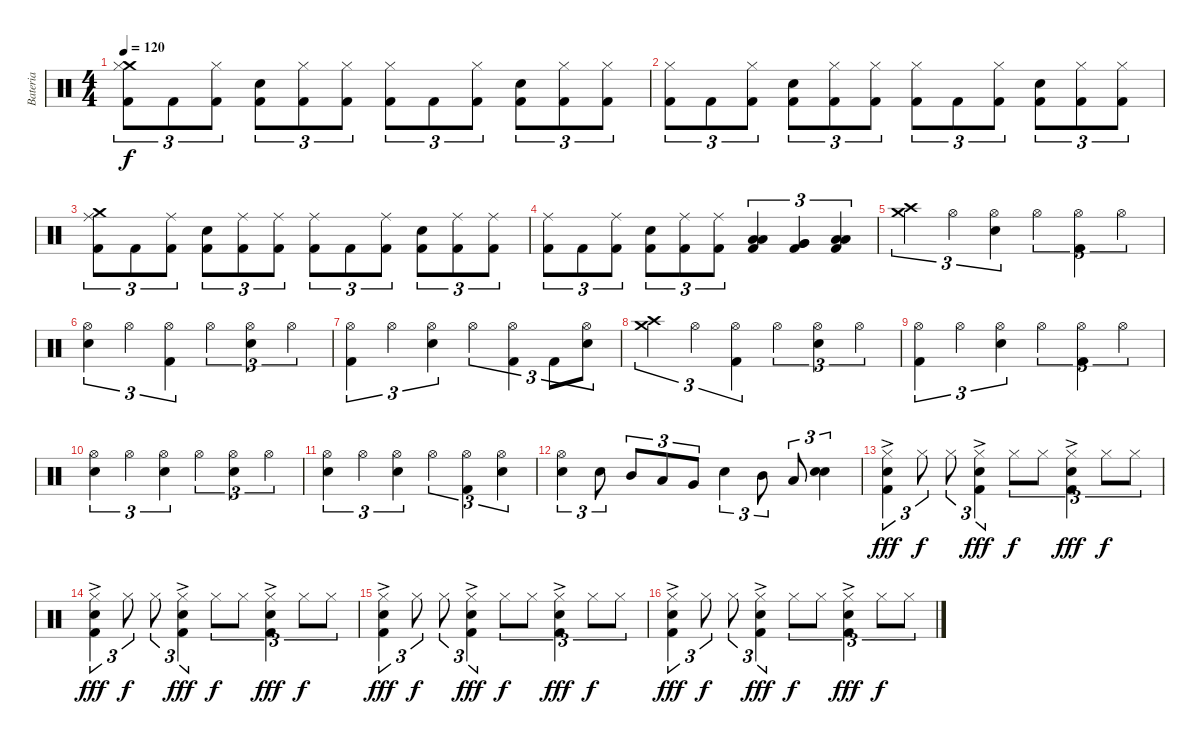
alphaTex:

\track ("Bateria" "Bateria") {instrument percussion}
\staff {score}
\articulation defaults
\ts (4 4)
\tempo 120
\clef neutral
\ks c
("Crash medium (hit)" "Hi-Hat (closed)" "Kick (hit) 2").8{tu (3 2) dy f} "Kick (hit) 2".8{tu (3 2)} ("Hi-Hat (closed)" "Kick (hit) 2").8{tu (3 2)} ("Snare (hit) 2" "Kick (hit) 2").8{tu (3 2)} ("Hi-Hat (closed)" "Kick (hit) 2").8{tu (3 2)} ("Hi-Hat (closed)" "Kick (hit) 2").8{tu (3 2)} ("Hi-Hat (closed)" "Kick (hit) 2").8{tu (3 2)} "Kick (hit) 2".8{tu (3 2)} ("Hi-Hat (closed)" "Kick (hit) 2").8{tu (3 2)} ("Snare (hit) 2" "Kick (hit) 2").8{tu (3 2)} ("Hi-Hat (closed)" "Kick (hit) 2").8{tu (3 2)} ("Hi-Hat (closed)" "Kick (hit) 2").8{tu (3 2)} |
("Hi-Hat (closed)" "Kick (hit) 2").8{tu (3 2)} "Kick (hit) 2".8{tu (3 2)} ("Hi-Hat (closed)" "Kick (hit) 2").8{tu (3 2)} ("Snare (hit) 2" "Kick (hit) 2").8{tu (3 2)} ("Hi-Hat (closed)" "Kick (hit) 2").8{tu (3 2)} ("Hi-Hat (closed)" "Kick (hit) 2").8{tu (3 2)} ("Hi-Hat (closed)" "Kick (hit) 2").8{tu (3 2)} "Kick (hit) 2".8{tu (3 2)} ("Hi-Hat (closed)" "Kick (hit) 2").8{tu (3 2)} ("Snare (hit) 2" "Kick (hit) 2").8{tu (3 2)} ("Hi-Hat (closed)" "Kick (hit) 2").8{tu (3 2)} ("Hi-Hat (closed)" "Kick (hit) 2").8{tu (3 2)} |
("Crash medium (hit)" "Ride (middle)" "Kick (hit) 2").8{tu (3 2)} "Kick (hit) 2".8{tu (3 2)} ("Ride (middle)" "Kick (hit) 2").8{tu (3 2)} ("Snare (hit) 2" "Kick (hit) 2").8{tu (3 2)} ("Ride (middle)" "Kick (hit) 2").8{tu (3 2)} ("Ride (middle)" "Kick (hit) 2").8{tu (3 2)} ("Ride (middle)" "Kick (hit) 2").8{tu (3 2)} "Kick (hit) 2".8{tu (3 2)} ("Ride (middle)" "Kick (hit) 2").8{tu (3 2)} ("Snare (hit) 2" "Kick (hit) 2").8{tu (3 2)} ("Ride (middle)" "Kick (hit) 2").8{tu (3 2)} ("Ride (middle)" "Kick (hit) 2").8{tu (3 2)} |
("Ride (middle)" "Kick (hit) 2").8{tu (3 2)} "Kick (hit) 2".8{tu (3 2)} ("Ride (middle)" "Kick (hit) 2").8{tu (3 2)} ("Snare (hit) 2" "Kick (hit) 2").8{tu (3 2)} ("Ride (middle)" "Kick (hit) 2").8{tu (3 2)} ("Ride (middle)" "Kick (hit) 2").8{tu (3 2)} ("Low Tom (hit)" "Low Tom (hit)" "Kick (hit) 2").4{tu (3 2)} ("Very Low Tom (hit)" "Very Low Tom (hit)" "Kick (hit) 2").4{tu (3 2)} ("Low Floor Tom (hit)" "Low Floor Tom (hit)" "Kick (hit) 2").4{tu (3 2)} |
("Crash medium (hit)" "Crash high (hit)").4{tu (3 2)} "Hi-Hat (open)".4{tu (3 2)} ("Hi-Hat (open)" "Snare (hit) 2").4{tu (3 2)} "Hi-Hat (open)".4{tu (3 2)} ("Hi-Hat (open)" "Kick (hit) 2").4{tu (3 2)} "Hi-Hat (open)".4{tu (3 2)} |
("Hi-Hat (open)" "Snare (hit) 2").4{tu (3 2)} "Hi-Hat (open)".4{tu (3 2)} ("Hi-Hat (open)" "Kick (hit) 2").4{tu (3 2)} "Hi-Hat (open)".4{tu (3 2)} ("Hi-Hat (open)" "Snare (hit) 2").4{tu (3 2)} "Hi-Hat (open)".4{tu (3 2)} |
("Hi-Hat (open)" "Kick (hit) 2").4{tu (3 2)} "Hi-Hat (open)".4{tu (3 2)} ("Hi-Hat (open)" "Snare (hit) 2").4{tu (3 2)} "Hi-Hat (open)".4{tu (3 2)} ("Hi-Hat (open)" "Kick (hit) 2").4{tu (3 2)} "Kick (hit) 2".8{tu (3 2)} ("Hi-Hat (open)" "Snare (hit) 2").8{tu (3 2)} |
("Crash medium (hit)" "Crash high (hit)").4{tu (3 2)} "Hi-Hat (open)".4{tu (3 2)} ("Hi-Hat (open)" "Kick (hit) 2").4{tu (3 2)} "Hi-Hat (open)".4{tu (3 2)} ("Hi-Hat (open)" "Snare (hit) 2").4{tu (3 2)} "Hi-Hat (open)".4{tu (3 2)} |
("Hi-Hat (open)" "Kick (hit) 2").4{tu (3 2)} "Hi-Hat (open)".4{tu (3 2)} ("Hi-Hat (open)" "Snare (hit) 2").4{tu (3 2)} "Hi-Hat (open)".4{tu (3 2)} ("Hi-Hat (open)" "Kick (hit) 2").4{tu (3 2)} "Hi-Hat (open)".4{tu (3 2)} |
("Hi-Hat (open)" "Snare (hit) 2").4{tu (3 2)} "Hi-Hat (open)".4{tu (3 2)} ("Hi-Hat (open)" "Snare (hit) 2").4{tu (3 2)} "Hi-Hat (open)".4{tu (3 2)} ("Hi-Hat (open)" "Snare (hit) 2").4{tu (3 2)} "Hi-Hat (open)".4{tu (3 2)} |
("Hi-Hat (open)" "Snare (hit) 2").4{tu (3 2)} "Hi-Hat (open)".4{tu (3 2)} ("Hi-Hat (open)" "Snare (hit) 2").4{tu (3 2)} "Hi-Hat (open)".4{tu (3 2)} ("Hi-Hat (open)" "Kick (hit) 2").4{tu (3 2)} ("Hi-Hat (open)" "Snare (hit) 2").4{tu (3 2)} |
("Hi-Hat (open)" "Snare (hit) 2").4{tu (3 2)} "Snare (hit) 2".8{tu (3 2)} "Mid Tom (hit)".8{tu (3 2)} "Low Tom (hit)".8{tu (3 2)} "Very Low Tom (hit)".8{tu (3 2)} "Snare (hit) 2".4{tu (3 2)} "Mid Tom (hit)".8{tu (3 2)} "Low Tom (hit)".8{tu (3 2)} ("Snare (hit) 2" "Snare (hit) 2").4{tu (3 2)} |
("Hi-Hat (closed)" "Snare (hit) 2"{ac} "Kick (hit) 2").4{tu (3 2) dy fff} "Hi-Hat (closed)".8{tu (3 2) dy f} "Hi-Hat (closed)".8{tu (3 2)} ("Hi-Hat (closed)" "Snare (hit) 2"{ac} "Kick (hit) 2").4{tu (3 2) dy fff} "Hi-Hat (closed)".8{tu (3 2) dy f} "Hi-Hat (closed)".8{tu (3 2)} ("Hi-Hat (closed)" "Snare (hit) 2"{ac} "Kick (hit) 2").4{tu (3 2) dy fff} "Hi-Hat (closed)".8{tu (3 2) dy f} "Hi-Hat (closed)".8{tu (3 2)} |
("Hi-Hat (closed)" "Snare (hit) 2"{ac} "Kick (hit) 2").4{tu (3 2) dy fff} "Hi-Hat (closed)".8{tu (3 2) dy f} "Hi-Hat (closed)".8{tu (3 2)} ("Hi-Hat (closed)" "Snare (hit) 2"{ac} "Kick (hit) 2").4{tu (3 2) dy fff} "Hi-Hat (closed)".8{tu (3 2) dy f} "Hi-Hat (closed)".8{tu (3 2)} ("Hi-Hat (closed)" "Snare (hit) 2"{ac} "Kick (hit) 2").4{tu (3 2) dy fff} "Hi-Hat (closed)".8{tu (3 2) dy f} "Hi-Hat (closed)".8{tu (3 2)} |
("Hi-Hat (closed)" "Snare (hit) 2"{ac} "Kick (hit) 2").4{tu (3 2) dy fff} "Hi-Hat (closed)".8{tu (3 2) dy f} "Hi-Hat (closed)".8{tu (3 2)} ("Hi-Hat (closed)" "Snare (hit) 2"{ac} "Kick (hit) 2").4{tu (3 2) dy fff} "Hi-Hat (closed)".8{tu (3 2) dy f} "Hi-Hat (closed)".8{tu (3 2)} ("Hi-Hat (closed)" "Snare (hit) 2"{ac} "Kick (hit) 2").4{tu (3 2) dy fff} "Hi-Hat (closed)".8{tu (3 2) dy f} "Hi-Hat (closed)".8{tu (3 2)} |
("Hi-Hat (closed)" "Snare (hit) 2"{ac} "Kick (hit) 2").4{tu (3 2) dy fff} "Hi-Hat (closed)".8{tu (3 2) dy f} "Hi-Hat (closed)".8{tu (3 2)} ("Hi-Hat (closed)" "Snare (hit) 2"{ac} "Kick (hit) 2").4{tu (3 2) dy fff} "Hi-Hat (closed)".8{tu (3 2) dy f} "Hi-Hat (closed)".8{tu (3 2)} ("Hi-Hat (closed)" "Snare (hit) 2"{ac} "Kick (hit) 2").4{tu (3 2) dy fff} "Hi-Hat (closed)".8{tu (3 2) dy f} "Hi-Hat (closed)".8{tu (3 2)}
